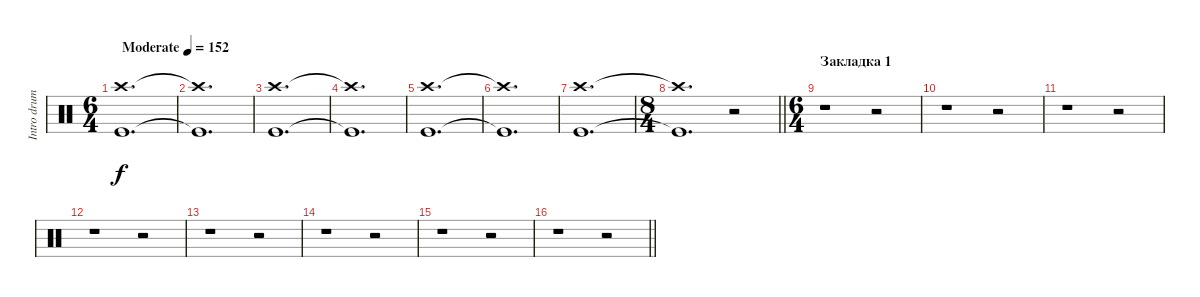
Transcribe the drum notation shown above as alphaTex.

\track ("Intro drums" "Intro drum") {instrument percussion}
\staff {score}
\articulation defaults
\ts (6 4)
\tempo (152 "Moderate")
\clef neutral
\ks c
("Crash high (hit)" "Kick (hit)").1{d dy f} |
("Crash high (hit)"{t} "Kick (hit)"{t}).1{d} |
("Crash high (hit)" "Kick (hit)").1{d} |
("Crash high (hit)"{t} "Kick (hit)"{t}).1{d} |
("Crash high (hit)" "Kick (hit)").1{d} |
("Crash high (hit)"{t} "Kick (hit)"{t}).1{d} |
("Crash high (hit)" "Kick (hit)").1{d} |
\ts (8 4)
\barLineRight lightlight
("Crash high (hit)"{t} "Kick (hit)"{t}).1{d} r.2 |
\ts (6 4)
\section ("" "Закладка 1")
r.1 r.2 |
r.1 r.2 |
r.1 r.2 |
r.1 r.2 |
r.1 r.2 |
r.1 r.2 |
r.1 r.2 |
\barLineRight lightlight
r.1 r.2
